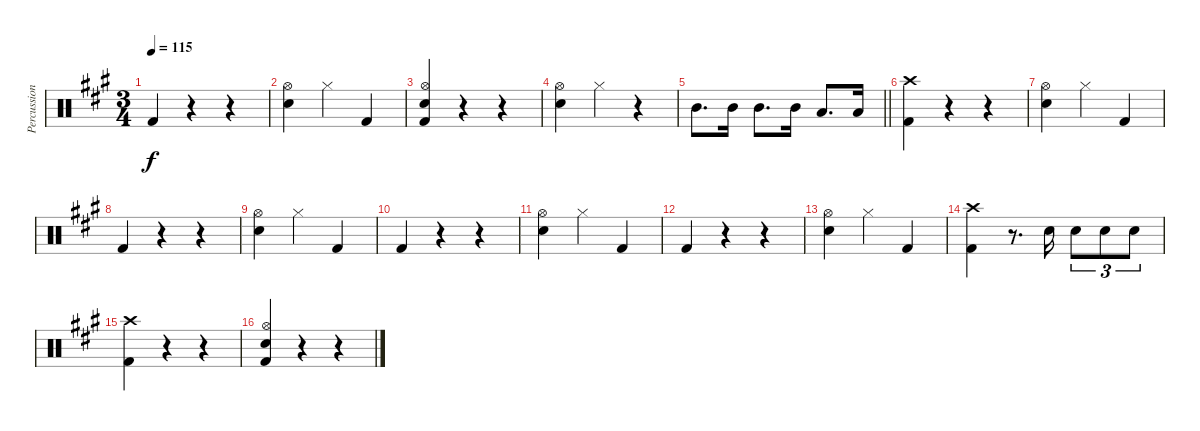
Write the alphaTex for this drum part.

\track ("Percussion" "Percussion") {instrument percussion}
\staff {score}
\articulation defaults
\ts (3 4)
\tempo 115
\clef neutral
\ks a "Kick (hit) 2".4{dy f}
r.4 r.4 |
("Hi-Hat (open)" "Snare (hit) 2").4 "Hi-Hat (closed)".4 "Kick (hit) 2".4 |
("Hi-Hat (open)" "Snare (hit) 2" "Kick (hit) 2").4 r.4 r.4 |
("Hi-Hat (open)" "Snare (hit) 2").4 "Hi-Hat (closed)".4 r.4 |
\barLineRight lightlight "Mid Tom (hit)".8{d} "Mid Tom (hit)".16 "Mid Tom (hit)".8{d} "Mid Tom (hit)".16 "Low Floor Tom (hit)".8{d} "Low Floor Tom (hit)".16
|
("Crash high (hit)" "Kick (hit) 2").4 r.4 r.4 |
("Hi-Hat (open)" "Snare (hit) 2").4 "Hi-Hat (closed)".4 "Kick (hit) 2".4 |
"Kick (hit) 2".4 r.4 r.4 |
("Hi-Hat (open)" "Snare (hit) 2").4 "Hi-Hat (closed)".4 "Kick (hit) 2".4 |
"Kick (hit) 2".4 r.4 r.4 |
("Hi-Hat (open)" "Snare (hit) 2").4 "Hi-Hat (closed)".4 "Kick (hit) 2".4 |
"Kick (hit) 2".4 r.4 r.4 |
("Hi-Hat (open)" "Snare (hit) 2").4 "Hi-Hat (closed)".4 "Kick (hit) 2".4 |
("Crash high (hit)" "Kick (hit) 2").4 r.8{d} "Snare (hit) 2".16 "Snare (hit) 2".8{tu (3 2)} "Snare (hit) 2".8{tu (3 2)} "Snare (hit) 2".8{tu (3 2)} |
("Crash high (hit)" "Kick (hit) 2").4 r.4 r.4 |
("Hi-Hat (open)" "Snare (hit) 2" "Kick (hit) 2").4 r.4 r.4
